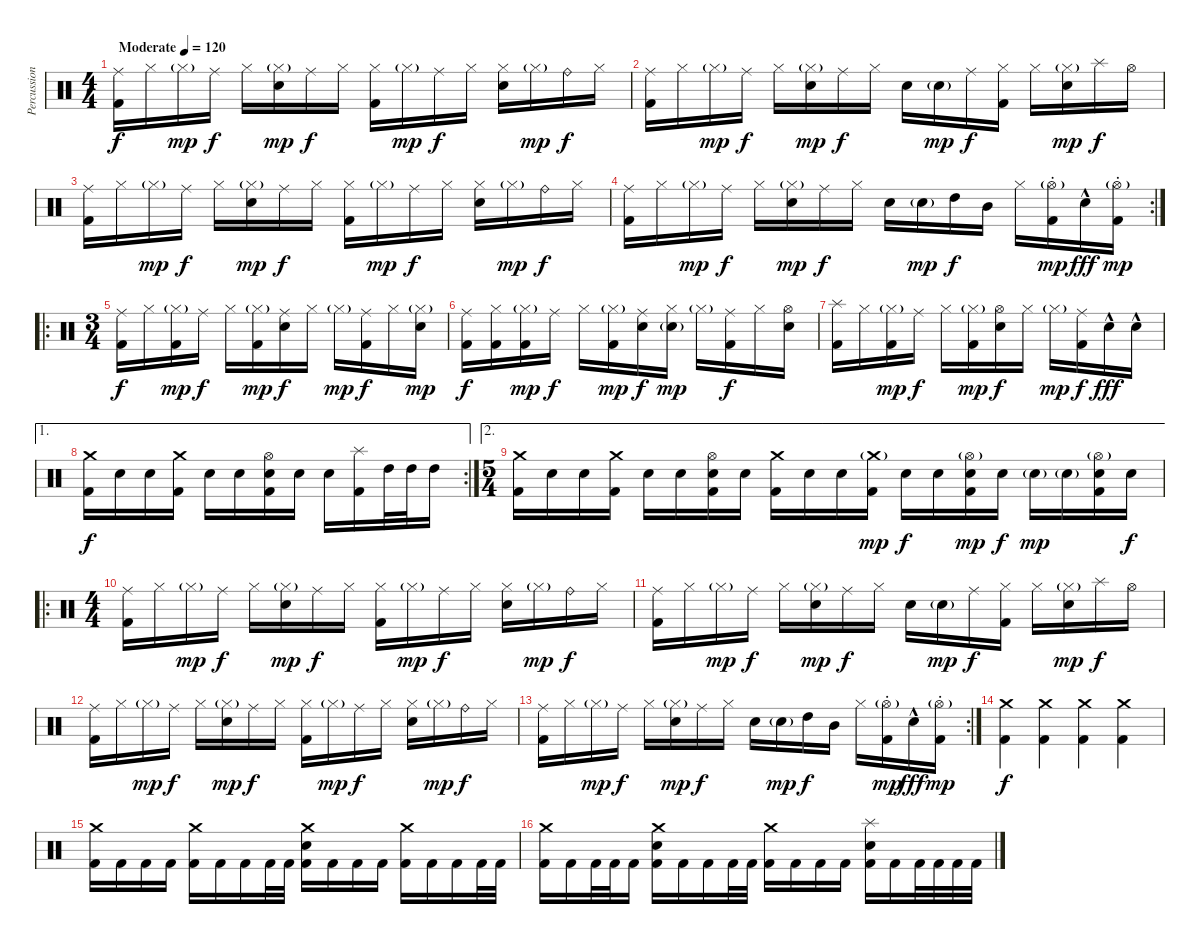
\track ("Percussion" "Percussion") {instrument percussion}
\staff {score}
\articulation defaults
\ts (4 4)
\tempo (120 "Moderate")
\clef neutral
\ks c
("Ride (middle)" "Kick (hit) 2").16{dy f} "Hi-Hat (closed)".16 "Hi-Hat (closed)"{g}.16{dy mp} "Ride (middle)".16{dy f} "Hi-Hat (closed)".16 ("Hi-Hat (closed)"{g} "Electric Snare (hit)").16{dy mp} "Ride (middle)".16{dy f} "Hi-Hat (closed)".16 ("Hi-Hat (closed)" "Kick (hit) 2").16 "Hi-Hat (closed)"{g}.16{dy mp} "Ride (middle)".16{dy f} "Hi-Hat (closed)".16 ("Hi-Hat (closed)" "Electric Snare (hit)").16 "Hi-Hat (closed)"{g}.16{dy mp} "Ride (bell)".16{dy f} "Hi-Hat (closed)".16 |
("Ride (middle)" "Kick (hit) 2").16 "Hi-Hat (closed)".16 "Hi-Hat (closed)"{g}.16{dy mp} "Ride (middle)".16{dy f} "Hi-Hat (closed)".16 ("Hi-Hat (closed)"{g} "Electric Snare (hit)").16{dy mp} "Ride (middle)".16{dy f} "Hi-Hat (closed)".16 "Electric Snare (hit)".16 "Electric Snare (hit)"{g}.16{dy mp} "Ride (middle)".16{dy f} ("Hi-Hat (closed)" "Kick (hit) 2").16 "Hi-Hat (closed)".16 ("Hi-Hat (closed)"{g} "Electric Snare (hit)").16{dy mp} "Splash (hit)".16{dy f} "Hi-Hat (open)".16 |
("Ride (middle)" "Kick (hit) 2").16 "Hi-Hat (closed)".16 "Hi-Hat (closed)"{g}.16{dy mp} "Ride (middle)".16{dy f} "Hi-Hat (closed)".16 ("Hi-Hat (closed)"{g} "Electric Snare (hit)").16{dy mp} "Ride (middle)".16{dy f} "Hi-Hat (closed)".16 ("Hi-Hat (closed)" "Kick (hit) 2").16 "Hi-Hat (closed)"{g}.16{dy mp} "Ride (middle)".16{dy f} "Hi-Hat (closed)".16 ("Hi-Hat (closed)" "Electric Snare (hit)").16 "Hi-Hat (closed)"{g}.16{dy mp} "Ride (bell)".16{dy f} "Hi-Hat (closed)".16 |
\rc 2
("Ride (middle)" "Kick (hit) 2").16 "Hi-Hat (closed)".16 "Hi-Hat (closed)"{g}.16{dy mp} "Ride (middle)".16{dy f} "Hi-Hat (closed)".16 ("Hi-Hat (closed)"{g} "Electric Snare (hit)").16{dy mp} "Ride (middle)".16{dy f} "Hi-Hat (closed)".16 "Electric Snare (hit)".16 "Electric Snare (hit)"{g}.16{dy mp} "High Tom (hit)".16{dy f} "Mid Tom (hit)".16 "Hi-Hat (closed)".16 ("Hi-Hat (open)"{g st} "Kick (hit) 2"{st}).16{dy mp} "Electric Snare (hit)"{hac}.16{dy fff} ("Hi-Hat (open)"{g st} "Kick (hit) 2"{st}).16{dy mp} |
\ro
\ts (3 4)
("Ride (middle)" "Kick (hit) 2").16{dy f} "Hi-Hat (closed)".16 ("Hi-Hat (closed)"{g} "Kick (hit) 2").16{dy mp} "Ride (middle)".16{dy f} "Hi-Hat (closed)".16 ("Hi-Hat (closed)"{g} "Kick (hit) 2").16{dy mp} ("Ride (middle)" "Electric Snare (hit)").16{dy f} "Hi-Hat (closed)".16 "Hi-Hat (closed)"{g}.16{dy mp} ("Ride (middle)" "Kick (hit) 2").16{dy f} "Hi-Hat (closed)".16 ("Hi-Hat (closed)"{g} "Electric Snare (hit)").16{dy mp} |
("Ride (middle)" "Kick (hit) 2").16{dy f} ("Hi-Hat (closed)" "Kick (hit) 2").16 ("Hi-Hat (closed)"{g} "Kick (hit) 2").16{dy mp} "Ride (middle)".16{dy f} "Hi-Hat (closed)".16 ("Hi-Hat (closed)"{g} "Kick (hit) 2").16{dy mp} ("Ride (middle)" "Electric Snare (hit)").16{dy f} ("Hi-Hat (closed)" "Electric Snare (hit)"{g}).16{dy mp} "Hi-Hat (closed)"{g}.16 ("Ride (middle)" "Kick (hit) 2").16{dy f} "Hi-Hat (closed)".16 ("Hi-Hat (open)" "Electric Snare (hit)").16 |
("Splash (hit)" "Kick (hit) 2").16 "Hi-Hat (closed)".16 ("Hi-Hat (closed)"{g} "Kick (hit) 2").16{dy mp} "Ride (middle)".16{dy f} "Hi-Hat (closed)".16 ("Hi-Hat (closed)"{g} "Kick (hit) 2").16{dy mp} ("Hi-Hat (open)" "Electric Snare (hit)").16{dy f} "Hi-Hat (closed)".16 "Hi-Hat (closed)"{g}.16{dy mp} ("Ride (middle)" "Kick (hit) 2").16{dy f} "Electric Snare (hit)"{hac}.16{dy fff} "Electric Snare (hit)"{hac}.16 |
\ae 1
\rc 2
("Crash medium (hit)" "Kick (hit) 2").16{dy f} "Electric Snare (hit)".16 "Electric Snare (hit)".16 ("Crash medium (hit)" "Kick (hit) 2").16 "Electric Snare (hit)".16 "Electric Snare (hit)".16 ("Hi-Hat (open)" "Electric Snare (hit)" "Kick (hit) 2").16 "Electric Snare (hit)".16 "Electric Snare (hit)".16 ("Splash (hit)" "Kick (hit) 2").16 "High Tom (hit)".32 "High Tom (hit)".32 "High Tom (hit)".16 |
\ae 2
\ts (5 4)
("Crash medium (hit)" "Kick (hit) 2").16 "Electric Snare (hit)".16 "Electric Snare (hit)".16 ("Crash medium (hit)" "Kick (hit) 2").16 "Electric Snare (hit)".16 "Electric Snare (hit)".16 ("Hi-Hat (open)" "Electric Snare (hit)" "Kick (hit) 2").16 "Electric Snare (hit)".16 ("Crash medium (hit)" "Kick (hit) 2").16 "Electric Snare (hit)".16 "Electric Snare (hit)".16 ("Crash medium (hit)"{g} "Kick (hit) 2").16{dy mp} "Electric Snare (hit)".16{dy f} "Electric Snare (hit)".16 ("Hi-Hat (open)"{g} "Electric Snare (hit)" "Kick (hit) 2").16{dy mp} "Electric Snare (hit)".16{dy f} "Electric Snare (hit)"{g}.16{dy mp} "Electric Snare (hit)"{g}.16 ("Hi-Hat (open)"{g} "Electric Snare (hit)" "Kick (hit) 2").16 "Electric Snare (hit)".16{dy f} |
\ro
\ts (4 4)
("Ride (middle)" "Kick (hit) 2").16 "Hi-Hat (closed)".16 "Hi-Hat (closed)"{g}.16{dy mp} "Ride (middle)".16{dy f} "Hi-Hat (closed)".16 ("Hi-Hat (closed)"{g} "Electric Snare (hit)").16{dy mp} "Ride (middle)".16{dy f} "Hi-Hat (closed)".16 ("Hi-Hat (closed)" "Kick (hit) 2").16 "Hi-Hat (closed)"{g}.16{dy mp} "Ride (middle)".16{dy f} "Hi-Hat (closed)".16 ("Hi-Hat (closed)" "Electric Snare (hit)").16 "Hi-Hat (closed)"{g}.16{dy mp} "Ride (bell)".16{dy f} "Hi-Hat (closed)".16 |
("Ride (middle)" "Kick (hit) 2").16 "Hi-Hat (closed)".16 "Hi-Hat (closed)"{g}.16{dy mp} "Ride (middle)".16{dy f} "Hi-Hat (closed)".16 ("Hi-Hat (closed)"{g} "Electric Snare (hit)").16{dy mp} "Ride (middle)".16{dy f} "Hi-Hat (closed)".16 "Electric Snare (hit)".16 "Electric Snare (hit)"{g}.16{dy mp} "Ride (middle)".16{dy f} ("Hi-Hat (closed)" "Kick (hit) 2").16 "Hi-Hat (closed)".16 ("Hi-Hat (closed)"{g} "Electric Snare (hit)").16{dy mp} "Splash (hit)".16{dy f} "Hi-Hat (open)".16 |
("Ride (middle)" "Kick (hit) 2").16 "Hi-Hat (closed)".16 "Hi-Hat (closed)"{g}.16{dy mp} "Ride (middle)".16{dy f} "Hi-Hat (closed)".16 ("Hi-Hat (closed)"{g} "Electric Snare (hit)").16{dy mp} "Ride (middle)".16{dy f} "Hi-Hat (closed)".16 ("Hi-Hat (closed)" "Kick (hit) 2").16 "Hi-Hat (closed)"{g}.16{dy mp} "Ride (middle)".16{dy f} "Hi-Hat (closed)".16 ("Hi-Hat (closed)" "Electric Snare (hit)").16 "Hi-Hat (closed)"{g}.16{dy mp} "Ride (bell)".16{dy f} "Hi-Hat (closed)".16 |
\rc 2
("Ride (middle)" "Kick (hit) 2").16 "Hi-Hat (closed)".16 "Hi-Hat (closed)"{g}.16{dy mp} "Ride (middle)".16{dy f} "Hi-Hat (closed)".16 ("Hi-Hat (closed)"{g} "Electric Snare (hit)").16{dy mp} "Ride (middle)".16{dy f} "Hi-Hat (closed)".16 "Electric Snare (hit)".16 "Electric Snare (hit)"{g}.16{dy mp} "High Tom (hit)".16{dy f} "Mid Tom (hit)".16 "Hi-Hat (closed)".16 ("Hi-Hat (open)"{g st} "Kick (hit) 2"{st}).16{dy mp} "Electric Snare (hit)"{hac}.16{dy fff} ("Hi-Hat (open)"{g st} "Kick (hit) 2"{st}).16{dy mp} |
("Crash medium (hit)" "Kick (hit) 2").4{dy f} ("Crash medium (hit)" "Kick (hit) 2").4 ("Crash medium (hit)" "Kick (hit) 2").4 ("Crash medium (hit)" "Kick (hit) 2").4 |
("Crash medium (hit)" "Kick (hit) 2").16 "Kick (hit) 2".16 "Kick (hit) 2".16 "Kick (hit) 2".16 ("Crash medium (hit)" "Kick (hit) 2").16 "Kick (hit) 2".16 "Kick (hit) 2".16 "Kick (hit) 2".32 "Kick (hit) 2".32 ("Electric Snare (hit)" "Crash medium (hit)" "Kick (hit) 2").16 "Kick (hit) 2".16 "Kick (hit) 2".16 "Kick (hit) 2".16 ("Crash medium (hit)" "Kick (hit) 2").16 "Kick (hit) 2".16 "Kick (hit) 2".16 "Kick (hit) 2".32 "Kick (hit) 2".32 |
("Crash medium (hit)" "Kick (hit) 2").16 "Kick (hit) 2".16 "Kick (hit) 2".32 "Kick (hit) 2".32 "Kick (hit) 2".16 ("Electric Snare (hit)" "Crash medium (hit)" "Kick (hit) 2").16 "Kick (hit) 2".16 "Kick (hit) 2".16 "Kick (hit) 2".32 "Kick (hit) 2".32 ("Crash medium (hit)" "Kick (hit) 2").16 "Kick (hit) 2".16 "Kick (hit) 2".16 "Kick (hit) 2".16 ("Splash (hit)" "Electric Snare (hit)" "Kick (hit) 2").16 "Kick (hit) 2".16 "Kick (hit) 2".32 "Kick (hit) 2".32 "Kick (hit) 2".32 "Kick (hit) 2".32
